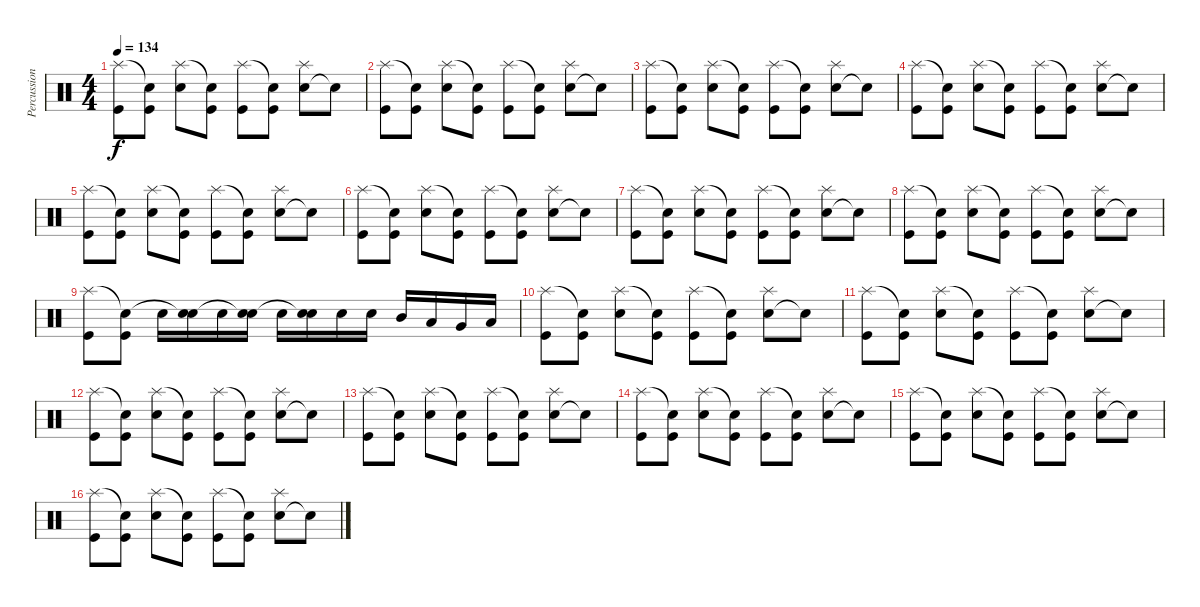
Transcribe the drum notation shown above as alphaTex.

\track ("Percussion" "Percussion") {instrument percussion}
\staff {score}
\articulation defaults
\ts (4 4)
\tempo 134
\clef neutral
\ks c
("Kick (hit)" "Splash (hit)").8{dy f} ("Kick (hit)" "Snare (hit)"{t}).8 ("Snare (hit) 2" "Splash (hit)").8 ("Kick (hit)" "Snare (hit)"{t}).8 ("Kick (hit)" "Splash (hit)").8 ("Kick (hit)" "Snare (hit)"{t}).8 ("Snare (hit) 2" "Splash (hit)").8 "Snare (hit)"{t}.8 |
("Kick (hit)" "Splash (hit)").8 ("Kick (hit)" "Snare (hit)"{t}).8 ("Snare (hit) 2" "Splash (hit)").8 ("Kick (hit)" "Snare (hit)"{t}).8 ("Kick (hit)" "Splash (hit)").8 ("Kick (hit)" "Snare (hit)"{t}).8 ("Snare (hit) 2" "Splash (hit)").8 "Snare (hit)"{t}.8 |
("Kick (hit)" "Splash (hit)").8 ("Kick (hit)" "Snare (hit)"{t}).8 ("Snare (hit) 2" "Splash (hit)").8 ("Kick (hit)" "Snare (hit)"{t}).8 ("Kick (hit)" "Splash (hit)").8 ("Kick (hit)" "Snare (hit)"{t}).8 ("Snare (hit) 2" "Splash (hit)").8 "Snare (hit)"{t}.8 |
("Kick (hit)" "Splash (hit)").8 ("Kick (hit)" "Snare (hit)"{t}).8 ("Snare (hit) 2" "Splash (hit)").8 ("Kick (hit)" "Snare (hit)"{t}).8 ("Kick (hit)" "Splash (hit)").8 ("Kick (hit)" "Snare (hit)"{t}).8 ("Snare (hit) 2" "Splash (hit)").8 "Snare (hit)"{t}.8 |
("Kick (hit)" "Splash (hit)").8 ("Kick (hit)" "Snare (hit)"{t}).8 ("Snare (hit) 2" "Splash (hit)").8 ("Kick (hit)" "Snare (hit)"{t}).8 ("Kick (hit)" "Splash (hit)").8 ("Kick (hit)" "Snare (hit)"{t}).8 ("Snare (hit) 2" "Splash (hit)").8 "Snare (hit)"{t}.8 |
("Kick (hit)" "Splash (hit)").8 ("Kick (hit)" "Snare (hit)"{t}).8 ("Snare (hit) 2" "Splash (hit)").8 ("Kick (hit)" "Snare (hit)"{t}).8 ("Kick (hit)" "Splash (hit)").8 ("Kick (hit)" "Snare (hit)"{t}).8 ("Snare (hit) 2" "Splash (hit)").8 "Snare (hit)"{t}.8 |
("Kick (hit)" "Splash (hit)").8 ("Kick (hit)" "Snare (hit)"{t}).8 ("Snare (hit) 2" "Splash (hit)").8 ("Kick (hit)" "Snare (hit)"{t}).8 ("Kick (hit)" "Splash (hit)").8 ("Kick (hit)" "Snare (hit)"{t}).8 ("Snare (hit) 2" "Splash (hit)").8 "Snare (hit)"{t}.8 |
("Kick (hit)" "Splash (hit)").8 ("Kick (hit)" "Snare (hit)"{t}).8 ("Snare (hit) 2" "Splash (hit)").8 ("Kick (hit)" "Snare (hit)"{t}).8 ("Kick (hit)" "Splash (hit)").8 ("Kick (hit)" "Snare (hit)"{t}).8 ("Snare (hit) 2" "Splash (hit)").8 "Snare (hit)"{t}.8 |
("Kick (hit)" "Splash (hit)").8 ("Kick (hit)" "Snare (hit)"{t}).8 "Snare (hit) 2".16 ("Snare (hit) 2" "Snare (hit)"{t}).16 "Snare (hit) 2".16 ("Snare (hit) 2" "Snare (hit)"{t}).16 "Snare (hit) 2".16 ("Snare (hit) 2" "Snare (hit)"{t}).16 "Snare (hit) 2".16 "Snare (hit) 2".16 "Mid Tom (hit)".16 "Low Tom (hit)".16 "Very Low Tom (hit)".16 "Low Floor Tom (hit)".16 |
("Kick (hit)" "Splash (hit)").8 ("Kick (hit)" "Snare (hit)"{t}).8 ("Snare (hit) 2" "Splash (hit)").8 ("Kick (hit)" "Snare (hit)"{t}).8 ("Kick (hit)" "Splash (hit)").8 ("Kick (hit)" "Snare (hit)"{t}).8 ("Snare (hit) 2" "Splash (hit)").8 "Snare (hit)"{t}.8 |
("Kick (hit)" "Splash (hit)").8 ("Kick (hit)" "Snare (hit)"{t}).8 ("Snare (hit) 2" "Splash (hit)").8 ("Kick (hit)" "Snare (hit)"{t}).8 ("Kick (hit)" "Splash (hit)").8 ("Kick (hit)" "Snare (hit)"{t}).8 ("Snare (hit) 2" "Splash (hit)").8 "Snare (hit)"{t}.8 |
("Kick (hit)" "Splash (hit)").8 ("Kick (hit)" "Snare (hit)"{t}).8 ("Snare (hit) 2" "Splash (hit)").8 ("Kick (hit)" "Snare (hit)"{t}).8 ("Kick (hit)" "Splash (hit)").8 ("Kick (hit)" "Snare (hit)"{t}).8 ("Snare (hit) 2" "Splash (hit)").8 "Snare (hit)"{t}.8 |
("Kick (hit)" "Splash (hit)").8 ("Kick (hit)" "Snare (hit)"{t}).8 ("Snare (hit) 2" "Splash (hit)").8 ("Kick (hit)" "Snare (hit)"{t}).8 ("Kick (hit)" "Splash (hit)").8 ("Kick (hit)" "Snare (hit)"{t}).8 ("Snare (hit) 2" "Splash (hit)").8 "Snare (hit)"{t}.8 |
("Kick (hit)" "Splash (hit)").8 ("Kick (hit)" "Snare (hit)"{t}).8 ("Snare (hit) 2" "Splash (hit)").8 ("Kick (hit)" "Snare (hit)"{t}).8 ("Kick (hit)" "Splash (hit)").8 ("Kick (hit)" "Snare (hit)"{t}).8 ("Snare (hit) 2" "Splash (hit)").8 "Snare (hit)"{t}.8 |
("Kick (hit)" "Splash (hit)").8 ("Kick (hit)" "Snare (hit)"{t}).8 ("Snare (hit) 2" "Splash (hit)").8 ("Kick (hit)" "Snare (hit)"{t}).8 ("Kick (hit)" "Splash (hit)").8 ("Kick (hit)" "Snare (hit)"{t}).8 ("Snare (hit) 2" "Splash (hit)").8 "Snare (hit)"{t}.8 |
("Kick (hit)" "Splash (hit)").8 ("Kick (hit)" "Snare (hit)"{t}).8 ("Snare (hit) 2" "Splash (hit)").8 ("Kick (hit)" "Snare (hit)"{t}).8 ("Kick (hit)" "Splash (hit)").8 ("Kick (hit)" "Snare (hit)"{t}).8 ("Snare (hit) 2" "Splash (hit)").8 "Snare (hit)"{t}.8
